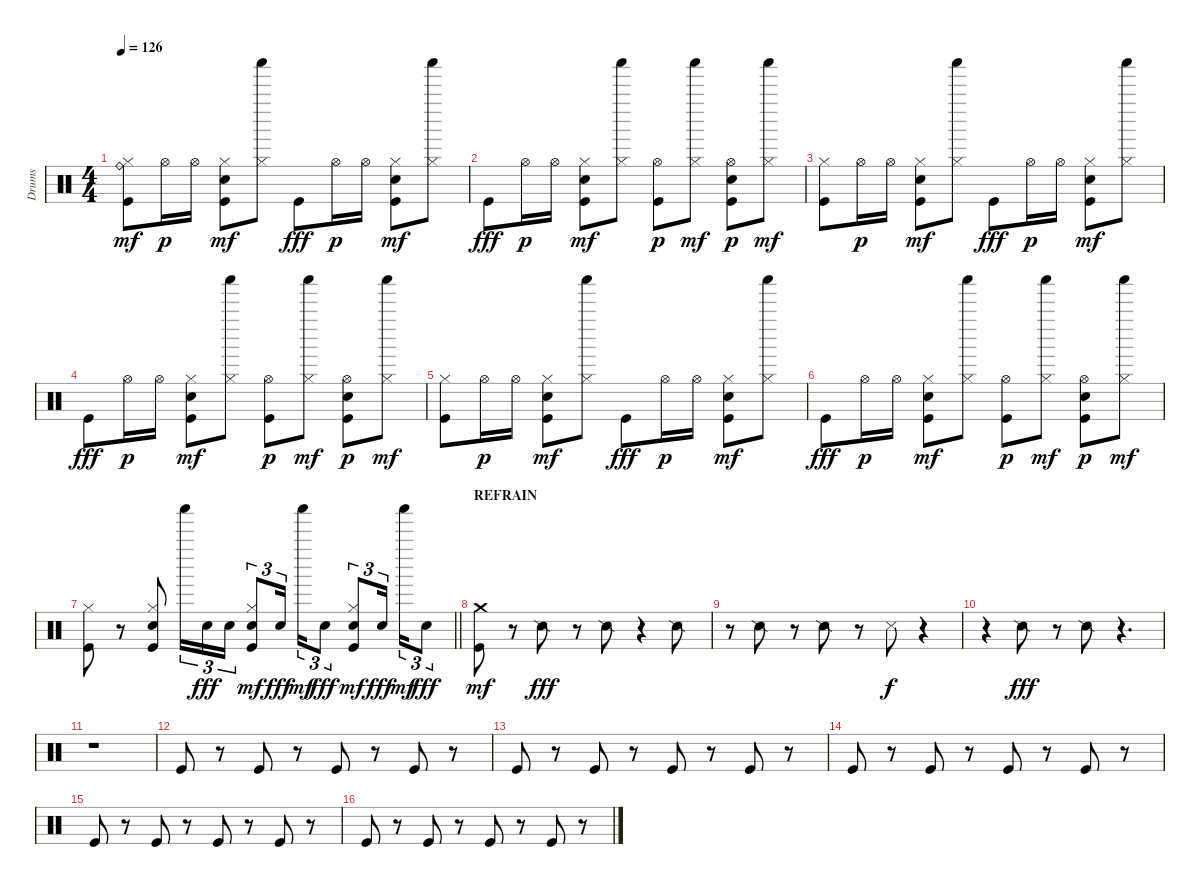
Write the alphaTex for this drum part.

\track ("Drums" "Drums") {instrument percussion}
\staff {score}
\articulation defaults
\ts (4 4)
\tempo 126
\clef neutral
\ks c
("Kick (hit)" "Hi-Hat (closed)" "Ride (bell)").8{dy mf} "Hi-Hat (open)".16{dy p} "Hi-Hat (open)".16 ("Kick (hit)" "Hand Clap (hit)" "Hi-Hat (closed)").8{dy mf} ("Hi-Hat (closed)" "Shaker (hit)").8 "Kick (hit)".8{dy fff} "Hi-Hat (open)".16{dy p} "Hi-Hat (open)".16 ("Kick (hit)" "Hand Clap (hit)" "Hi-Hat (closed)").8{dy mf} ("Hi-Hat (closed)" "Shaker (hit)").8 |
"Kick (hit)".8{dy fff} "Hi-Hat (open)".16{dy p} "Hi-Hat (open)".16 ("Kick (hit)" "Hand Clap (hit)" "Hi-Hat (closed)").8{dy mf} ("Hi-Hat (closed)" "Shaker (hit)").8 ("Kick (hit)" "Hi-Hat (open)").8{dy p} ("Hi-Hat (closed)" "Shaker (hit)").8{dy mf} ("Kick (hit)" "Hand Clap (hit)" "Hi-Hat (open)").8{dy p} ("Hi-Hat (closed)" "Shaker (hit)").8{dy mf} |
("Kick (hit)" "Hi-Hat (closed)").8 "Hi-Hat (open)".16{dy p} "Hi-Hat (open)".16 ("Kick (hit)" "Hand Clap (hit)" "Hi-Hat (closed)").8{dy mf} ("Hi-Hat (closed)" "Shaker (hit)").8 "Kick (hit)".8{dy fff} "Hi-Hat (open)".16{dy p} "Hi-Hat (open)".16 ("Kick (hit)" "Hand Clap (hit)" "Hi-Hat (closed)").8{dy mf} ("Hi-Hat (closed)" "Shaker (hit)").8 |
"Kick (hit)".8{dy fff} "Hi-Hat (open)".16{dy p} "Hi-Hat (open)".16 ("Kick (hit)" "Hand Clap (hit)" "Hi-Hat (closed)").8{dy mf} ("Hi-Hat (closed)" "Shaker (hit)").8 ("Kick (hit)" "Hi-Hat (open)").8{dy p} ("Hi-Hat (closed)" "Shaker (hit)").8{dy mf} ("Kick (hit)" "Hand Clap (hit)" "Hi-Hat (open)").8{dy p} ("Hi-Hat (closed)" "Shaker (hit)").8{dy mf} |
("Kick (hit)" "Hi-Hat (closed)").8 "Hi-Hat (open)".16{dy p} "Hi-Hat (open)".16 ("Kick (hit)" "Hand Clap (hit)" "Hi-Hat (closed)").8{dy mf} ("Hi-Hat (closed)" "Shaker (hit)").8 "Kick (hit)".8{dy fff} "Hi-Hat (open)".16{dy p} "Hi-Hat (open)".16 ("Kick (hit)" "Hand Clap (hit)" "Hi-Hat (closed)").8{dy mf} ("Hi-Hat (closed)" "Shaker (hit)").8 |
"Kick (hit)".8{dy fff} "Hi-Hat (open)".16{dy p} "Hi-Hat (open)".16 ("Kick (hit)" "Hand Clap (hit)" "Hi-Hat (closed)").8{dy mf} ("Hi-Hat (closed)" "Shaker (hit)").8 ("Kick (hit)" "Hi-Hat (open)").8{dy p} ("Hi-Hat (closed)" "Shaker (hit)").8{dy mf} ("Kick (hit)" "Hand Clap (hit)" "Hi-Hat (open)").8{dy p} ("Hi-Hat (closed)" "Shaker (hit)").8{dy mf} |
\barLineRight lightlight
("Kick (hit)" "Hi-Hat (closed)").8 r.8 ("Kick (hit)" "Hand Clap (hit)" "Hi-Hat (closed)").8 "Shaker (hit)".16{tu (3 2)} "Snare (hit) 2".16{tu (3 2) dy fff} "Snare (hit) 2".16{tu (3 2)} ("Kick (hit)" "Snare (hit) 2" "Hi-Hat (closed)").8{tu (3 2) dy mf} "Snare (hit) 2".16{tu (3 2) dy fff beam splitsecondary} "Shaker (hit)".16{tu (3 2) dy mf} "Snare (hit) 2".8{tu (3 2) dy fff} ("Kick (hit)" "Snare (hit) 2" "Hi-Hat (closed)").8{tu (3 2) dy mf} "Snare (hit) 2".16{tu (3 2) dy fff beam splitsecondary} "Shaker (hit)".16{tu (3 2) dy mf} "Snare (hit) 2".8{tu (3 2) dy fff} |
\section ("" "REFRAIN")
("Kick (hit)" "Crash medium (hit)").8{dy mf} r.8 "Snare (side stick) 2".8{dy fff} r.8 "Snare (side stick) 2".8 r.4 "Snare (side stick) 2".8 |
r.8 "Snare (side stick) 2".8 r.8 "Snare (side stick) 2".8 r.8 "Snare (side stick) 3".8{dy f} r.4 |
r.4 "Snare (side stick) 2".8{dy fff} r.8 "Snare (side stick) 2".8 r.4{d} |
r.1 |
"Kick (hit)".8 r.8 "Kick (hit)".8 r.8 "Kick (hit)".8 r.8 "Kick (hit)".8 r.8 |
"Kick (hit)".8 r.8 "Kick (hit)".8 r.8 "Kick (hit)".8 r.8 "Kick (hit)".8 r.8 |
"Kick (hit)".8 r.8 "Kick (hit)".8 r.8 "Kick (hit)".8 r.8 "Kick (hit)".8 r.8 |
"Kick (hit)".8 r.8 "Kick (hit)".8 r.8 "Kick (hit)".8 r.8 "Kick (hit)".8 r.8 |
"Kick (hit)".8 r.8 "Kick (hit)".8 r.8 "Kick (hit)".8 r.8 "Kick (hit)".8 r.8
